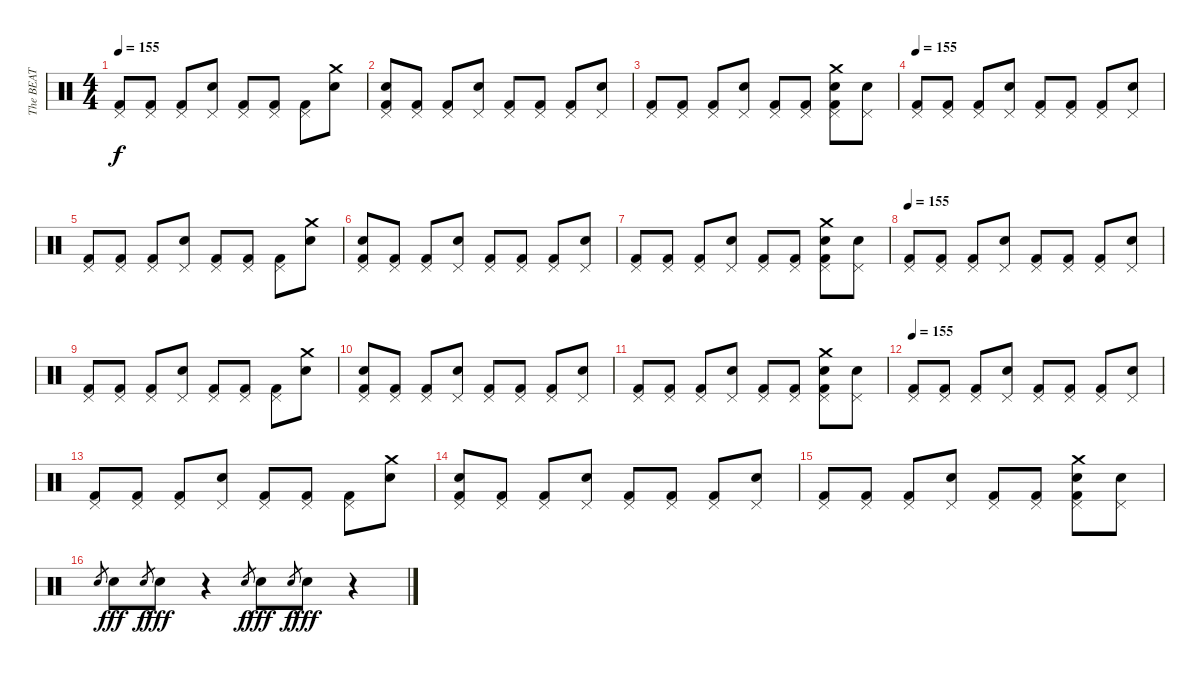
\track ("The BEAT" "The BEAT") {instrument percussion}
\staff {score}
\articulation defaults
\ts (4 4)
\tempo 155
\clef neutral
\ks c
("Pedal Hi-Hat (hit)" "Kick (hit) 2").8{dy f} ("Pedal Hi-Hat (hit)" "Kick (hit) 2").8 ("Pedal Hi-Hat (hit)" "Kick (hit) 2").8 ("Pedal Hi-Hat (hit)" "Electric Snare (hit)").8 ("Pedal Hi-Hat (hit)" "Kick (hit) 2").8 ("Pedal Hi-Hat (hit)" "Kick (hit) 2").8 ("Pedal Hi-Hat (hit)" "Kick (hit) 2").8 ("Crash medium (hit)" "Electric Snare (hit)").8 |
("Pedal Hi-Hat (hit)" "Electric Snare (hit)" "Kick (hit) 2").8 ("Pedal Hi-Hat (hit)" "Kick (hit) 2").8 ("Pedal Hi-Hat (hit)" "Kick (hit) 2").8 ("Pedal Hi-Hat (hit)" "Electric Snare (hit)").8 ("Pedal Hi-Hat (hit)" "Kick (hit) 2").8 ("Pedal Hi-Hat (hit)" "Kick (hit) 2").8 ("Pedal Hi-Hat (hit)" "Kick (hit) 2").8 ("Pedal Hi-Hat (hit)" "Electric Snare (hit)").8 |
("Pedal Hi-Hat (hit)" "Kick (hit) 2").8 ("Pedal Hi-Hat (hit)" "Kick (hit) 2").8 ("Pedal Hi-Hat (hit)" "Kick (hit) 2").8 ("Pedal Hi-Hat (hit)" "Electric Snare (hit)").8 ("Pedal Hi-Hat (hit)" "Kick (hit) 2").8 ("Pedal Hi-Hat (hit)" "Kick (hit) 2").8 ("Pedal Hi-Hat (hit)" "Crash medium (hit)" "Electric Snare (hit)" "Kick (hit) 2").8 ("Pedal Hi-Hat (hit)" "Electric Snare (hit)").8 |
\tempo 155
("Pedal Hi-Hat (hit)" "Kick (hit) 2").8 ("Pedal Hi-Hat (hit)" "Kick (hit) 2").8 ("Pedal Hi-Hat (hit)" "Kick (hit) 2").8 ("Pedal Hi-Hat (hit)" "Electric Snare (hit)").8 ("Pedal Hi-Hat (hit)" "Kick (hit) 2").8 ("Pedal Hi-Hat (hit)" "Kick (hit) 2").8 ("Pedal Hi-Hat (hit)" "Kick (hit) 2").8 ("Pedal Hi-Hat (hit)" "Electric Snare (hit)").8 |
("Pedal Hi-Hat (hit)" "Kick (hit) 2").8 ("Pedal Hi-Hat (hit)" "Kick (hit) 2").8 ("Pedal Hi-Hat (hit)" "Kick (hit) 2").8 ("Pedal Hi-Hat (hit)" "Electric Snare (hit)").8 ("Pedal Hi-Hat (hit)" "Kick (hit) 2").8 ("Pedal Hi-Hat (hit)" "Kick (hit) 2").8 ("Pedal Hi-Hat (hit)" "Kick (hit) 2").8 ("Crash medium (hit)" "Electric Snare (hit)").8 |
("Pedal Hi-Hat (hit)" "Electric Snare (hit)" "Kick (hit) 2").8 ("Pedal Hi-Hat (hit)" "Kick (hit) 2").8 ("Pedal Hi-Hat (hit)" "Kick (hit) 2").8 ("Pedal Hi-Hat (hit)" "Electric Snare (hit)").8 ("Pedal Hi-Hat (hit)" "Kick (hit) 2").8 ("Pedal Hi-Hat (hit)" "Kick (hit) 2").8 ("Pedal Hi-Hat (hit)" "Kick (hit) 2").8 ("Pedal Hi-Hat (hit)" "Electric Snare (hit)").8 |
("Pedal Hi-Hat (hit)" "Kick (hit) 2").8 ("Pedal Hi-Hat (hit)" "Kick (hit) 2").8 ("Pedal Hi-Hat (hit)" "Kick (hit) 2").8 ("Pedal Hi-Hat (hit)" "Electric Snare (hit)").8 ("Pedal Hi-Hat (hit)" "Kick (hit) 2").8 ("Pedal Hi-Hat (hit)" "Kick (hit) 2").8 ("Pedal Hi-Hat (hit)" "Crash medium (hit)" "Electric Snare (hit)" "Kick (hit) 2").8 ("Pedal Hi-Hat (hit)" "Electric Snare (hit)").8 |
\tempo 155
("Pedal Hi-Hat (hit)" "Kick (hit) 2").8 ("Pedal Hi-Hat (hit)" "Kick (hit) 2").8 ("Pedal Hi-Hat (hit)" "Kick (hit) 2").8 ("Pedal Hi-Hat (hit)" "Electric Snare (hit)").8 ("Pedal Hi-Hat (hit)" "Kick (hit) 2").8 ("Pedal Hi-Hat (hit)" "Kick (hit) 2").8 ("Pedal Hi-Hat (hit)" "Kick (hit) 2").8 ("Pedal Hi-Hat (hit)" "Electric Snare (hit)").8 |
("Pedal Hi-Hat (hit)" "Kick (hit) 2").8 ("Pedal Hi-Hat (hit)" "Kick (hit) 2").8 ("Pedal Hi-Hat (hit)" "Kick (hit) 2").8 ("Pedal Hi-Hat (hit)" "Electric Snare (hit)").8 ("Pedal Hi-Hat (hit)" "Kick (hit) 2").8 ("Pedal Hi-Hat (hit)" "Kick (hit) 2").8 ("Pedal Hi-Hat (hit)" "Kick (hit) 2").8 ("Crash medium (hit)" "Electric Snare (hit)").8 |
("Pedal Hi-Hat (hit)" "Electric Snare (hit)" "Kick (hit) 2").8 ("Pedal Hi-Hat (hit)" "Kick (hit) 2").8 ("Pedal Hi-Hat (hit)" "Kick (hit) 2").8 ("Pedal Hi-Hat (hit)" "Electric Snare (hit)").8 ("Pedal Hi-Hat (hit)" "Kick (hit) 2").8 ("Pedal Hi-Hat (hit)" "Kick (hit) 2").8 ("Pedal Hi-Hat (hit)" "Kick (hit) 2").8 ("Pedal Hi-Hat (hit)" "Electric Snare (hit)").8 |
("Pedal Hi-Hat (hit)" "Kick (hit) 2").8 ("Pedal Hi-Hat (hit)" "Kick (hit) 2").8 ("Pedal Hi-Hat (hit)" "Kick (hit) 2").8 ("Pedal Hi-Hat (hit)" "Electric Snare (hit)").8 ("Pedal Hi-Hat (hit)" "Kick (hit) 2").8 ("Pedal Hi-Hat (hit)" "Kick (hit) 2").8 ("Pedal Hi-Hat (hit)" "Crash medium (hit)" "Electric Snare (hit)" "Kick (hit) 2").8 ("Pedal Hi-Hat (hit)" "Electric Snare (hit)").8 |
\tempo 155
("Pedal Hi-Hat (hit)" "Kick (hit) 2").8 ("Pedal Hi-Hat (hit)" "Kick (hit) 2").8 ("Pedal Hi-Hat (hit)" "Kick (hit) 2").8 ("Pedal Hi-Hat (hit)" "Electric Snare (hit)").8 ("Pedal Hi-Hat (hit)" "Kick (hit) 2").8 ("Pedal Hi-Hat (hit)" "Kick (hit) 2").8 ("Pedal Hi-Hat (hit)" "Kick (hit) 2").8 ("Pedal Hi-Hat (hit)" "Electric Snare (hit)").8 |
("Pedal Hi-Hat (hit)" "Kick (hit) 2").8 ("Pedal Hi-Hat (hit)" "Kick (hit) 2").8 ("Pedal Hi-Hat (hit)" "Kick (hit) 2").8 ("Pedal Hi-Hat (hit)" "Electric Snare (hit)").8 ("Pedal Hi-Hat (hit)" "Kick (hit) 2").8 ("Pedal Hi-Hat (hit)" "Kick (hit) 2").8 ("Pedal Hi-Hat (hit)" "Kick (hit) 2").8 ("Crash medium (hit)" "Electric Snare (hit)").8 |
("Pedal Hi-Hat (hit)" "Electric Snare (hit)" "Kick (hit) 2").8 ("Pedal Hi-Hat (hit)" "Kick (hit) 2").8 ("Pedal Hi-Hat (hit)" "Kick (hit) 2").8 ("Pedal Hi-Hat (hit)" "Electric Snare (hit)").8 ("Pedal Hi-Hat (hit)" "Kick (hit) 2").8 ("Pedal Hi-Hat (hit)" "Kick (hit) 2").8 ("Pedal Hi-Hat (hit)" "Kick (hit) 2").8 ("Pedal Hi-Hat (hit)" "Electric Snare (hit)").8 |
("Pedal Hi-Hat (hit)" "Kick (hit) 2").8 ("Pedal Hi-Hat (hit)" "Kick (hit) 2").8 ("Pedal Hi-Hat (hit)" "Kick (hit) 2").8 ("Pedal Hi-Hat (hit)" "Electric Snare (hit)").8 ("Pedal Hi-Hat (hit)" "Kick (hit) 2").8 ("Pedal Hi-Hat (hit)" "Kick (hit) 2").8 ("Pedal Hi-Hat (hit)" "Crash medium (hit)" "Electric Snare (hit)" "Kick (hit) 2").8 ("Pedal Hi-Hat (hit)" "Electric Snare (hit)").8 |
"Electric Snare (hit)".8{gr} "Electric Snare (hit)".8{dy fff volume 16} "Electric Snare (hit)".8{gr dy f} "Electric Snare (hit)".8{dy fff} r.4 "Electric Snare (hit)".8{gr dy f} "Electric Snare (hit)".8{dy fff volume 16} "Electric Snare (hit)".8{gr dy f} "Electric Snare (hit)".8{dy fff} r.4
